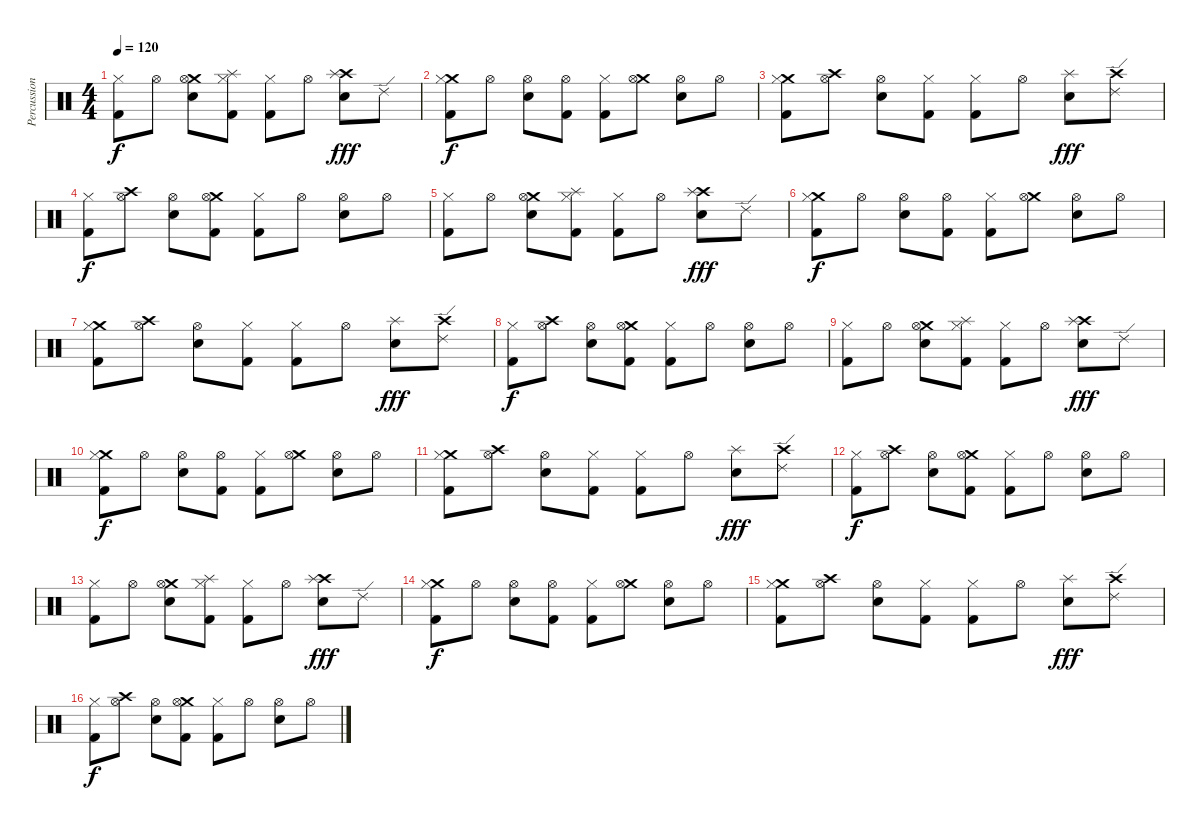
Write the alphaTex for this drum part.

\track ("Percussion" "Percussion") {instrument percussion}
\staff {score}
\articulation defaults
\ts (4 4)
\tempo 120
\clef neutral
\ks c
("Kick (hit) 2" "Hi-Hat (closed)").8{dy f} "Hi-Hat (open)".8 ("Crash medium (hit)" "Electric Snare (hit)" "Hi-Hat (open)").8 ("Splash (hit)" "Kick (hit) 2" "Hi-Hat (closed)").8 ("Kick (hit) 2" "Hi-Hat (closed)").8 "Hi-Hat (open)".8 ("Crash high (hit)" "Electric Snare (hit)" "Splash (hit)").8{dy fff} "Ride (edge) 2".8 |
("Crash medium (hit)" "Kick (hit) 2" "Hi-Hat (closed)").8{dy f} "Hi-Hat (open)".8 ("Electric Snare (hit)" "Hi-Hat (open)").8 ("Kick (hit) 2" "Hi-Hat (open)").8 ("Kick (hit) 2" "Hi-Hat (closed)").8 ("Crash medium (hit)" "Hi-Hat (open)").8 ("Electric Snare (hit)" "Hi-Hat (open)").8 "Hi-Hat (open)".8 |
("Crash medium (hit)" "Kick (hit) 2" "Hi-Hat (closed)").8 ("Crash high (hit)" "Hi-Hat (open)").8 ("Electric Snare (hit)" "Hi-Hat (open)").8 ("Kick (hit) 2" "Hi-Hat (closed)").8 ("Kick (hit) 2" "Hi-Hat (closed)").8 "Hi-Hat (open)".8 ("Electric Snare (hit)" "Splash (hit)").8{dy fff} ("Crash high (hit)" "Ride (edge) 2").8 |
("Kick (hit) 2" "Hi-Hat (closed)").8{dy f} ("Crash high (hit)" "Hi-Hat (open)").8 ("Electric Snare (hit)" "Hi-Hat (open)").8 ("Crash medium (hit)" "Kick (hit) 2" "Hi-Hat (open)").8 ("Kick (hit) 2" "Hi-Hat (closed)").8 "Hi-Hat (open)".8 ("Electric Snare (hit)" "Hi-Hat (open)").8 "Hi-Hat (open)".8 |
("Kick (hit) 2" "Hi-Hat (closed)").8 "Hi-Hat (open)".8 ("Crash medium (hit)" "Electric Snare (hit)" "Hi-Hat (open)").8 ("Splash (hit)" "Kick (hit) 2" "Hi-Hat (closed)").8 ("Kick (hit) 2" "Hi-Hat (closed)").8 "Hi-Hat (open)".8 ("Crash high (hit)" "Electric Snare (hit)" "Splash (hit)").8{dy fff} "Ride (edge) 2".8 |
("Crash medium (hit)" "Kick (hit) 2" "Hi-Hat (closed)").8{dy f} "Hi-Hat (open)".8 ("Electric Snare (hit)" "Hi-Hat (open)").8 ("Kick (hit) 2" "Hi-Hat (open)").8 ("Kick (hit) 2" "Hi-Hat (closed)").8 ("Crash medium (hit)" "Hi-Hat (open)").8 ("Electric Snare (hit)" "Hi-Hat (open)").8 "Hi-Hat (open)".8 |
("Crash medium (hit)" "Kick (hit) 2" "Hi-Hat (closed)").8 ("Crash high (hit)" "Hi-Hat (open)").8 ("Electric Snare (hit)" "Hi-Hat (open)").8 ("Kick (hit) 2" "Hi-Hat (closed)").8 ("Kick (hit) 2" "Hi-Hat (closed)").8 "Hi-Hat (open)".8 ("Electric Snare (hit)" "Splash (hit)").8{dy fff} ("Crash high (hit)" "Ride (edge) 2").8 |
("Kick (hit) 2" "Hi-Hat (closed)").8{dy f} ("Crash high (hit)" "Hi-Hat (open)").8 ("Electric Snare (hit)" "Hi-Hat (open)").8 ("Crash medium (hit)" "Kick (hit) 2" "Hi-Hat (open)").8 ("Kick (hit) 2" "Hi-Hat (closed)").8 "Hi-Hat (open)".8 ("Electric Snare (hit)" "Hi-Hat (open)").8 "Hi-Hat (open)".8 |
("Kick (hit) 2" "Hi-Hat (closed)").8 "Hi-Hat (open)".8 ("Crash medium (hit)" "Electric Snare (hit)" "Hi-Hat (open)").8 ("Splash (hit)" "Kick (hit) 2" "Hi-Hat (closed)").8 ("Kick (hit) 2" "Hi-Hat (closed)").8 "Hi-Hat (open)".8 ("Crash high (hit)" "Electric Snare (hit)" "Splash (hit)").8{dy fff} "Ride (edge) 2".8 |
("Crash medium (hit)" "Kick (hit) 2" "Hi-Hat (closed)").8{dy f} "Hi-Hat (open)".8 ("Electric Snare (hit)" "Hi-Hat (open)").8 ("Kick (hit) 2" "Hi-Hat (open)").8 ("Kick (hit) 2" "Hi-Hat (closed)").8 ("Crash medium (hit)" "Hi-Hat (open)").8 ("Electric Snare (hit)" "Hi-Hat (open)").8 "Hi-Hat (open)".8 |
("Crash medium (hit)" "Kick (hit) 2" "Hi-Hat (closed)").8 ("Crash high (hit)" "Hi-Hat (open)").8 ("Electric Snare (hit)" "Hi-Hat (open)").8 ("Kick (hit) 2" "Hi-Hat (closed)").8 ("Kick (hit) 2" "Hi-Hat (closed)").8 "Hi-Hat (open)".8 ("Electric Snare (hit)" "Splash (hit)").8{dy fff} ("Crash high (hit)" "Ride (edge) 2").8 |
("Kick (hit) 2" "Hi-Hat (closed)").8{dy f} ("Crash high (hit)" "Hi-Hat (open)").8 ("Electric Snare (hit)" "Hi-Hat (open)").8 ("Crash medium (hit)" "Kick (hit) 2" "Hi-Hat (open)").8 ("Kick (hit) 2" "Hi-Hat (closed)").8 "Hi-Hat (open)".8 ("Electric Snare (hit)" "Hi-Hat (open)").8 "Hi-Hat (open)".8 |
("Kick (hit) 2" "Hi-Hat (closed)").8 "Hi-Hat (open)".8 ("Crash medium (hit)" "Electric Snare (hit)" "Hi-Hat (open)").8 ("Splash (hit)" "Kick (hit) 2" "Hi-Hat (closed)").8 ("Kick (hit) 2" "Hi-Hat (closed)").8 "Hi-Hat (open)".8 ("Crash high (hit)" "Electric Snare (hit)" "Splash (hit)").8{dy fff} "Ride (edge) 2".8 |
("Crash medium (hit)" "Kick (hit) 2" "Hi-Hat (closed)").8{dy f} "Hi-Hat (open)".8 ("Electric Snare (hit)" "Hi-Hat (open)").8 ("Kick (hit) 2" "Hi-Hat (open)").8 ("Kick (hit) 2" "Hi-Hat (closed)").8 ("Crash medium (hit)" "Hi-Hat (open)").8 ("Electric Snare (hit)" "Hi-Hat (open)").8 "Hi-Hat (open)".8 |
("Crash medium (hit)" "Kick (hit) 2" "Hi-Hat (closed)").8 ("Crash high (hit)" "Hi-Hat (open)").8 ("Electric Snare (hit)" "Hi-Hat (open)").8 ("Kick (hit) 2" "Hi-Hat (closed)").8 ("Kick (hit) 2" "Hi-Hat (closed)").8 "Hi-Hat (open)".8 ("Electric Snare (hit)" "Splash (hit)").8{dy fff} ("Crash high (hit)" "Ride (edge) 2").8 |
("Kick (hit) 2" "Hi-Hat (closed)").8{dy f} ("Crash high (hit)" "Hi-Hat (open)").8 ("Electric Snare (hit)" "Hi-Hat (open)").8 ("Crash medium (hit)" "Kick (hit) 2" "Hi-Hat (open)").8 ("Kick (hit) 2" "Hi-Hat (closed)").8 "Hi-Hat (open)".8 ("Electric Snare (hit)" "Hi-Hat (open)").8 "Hi-Hat (open)".8
